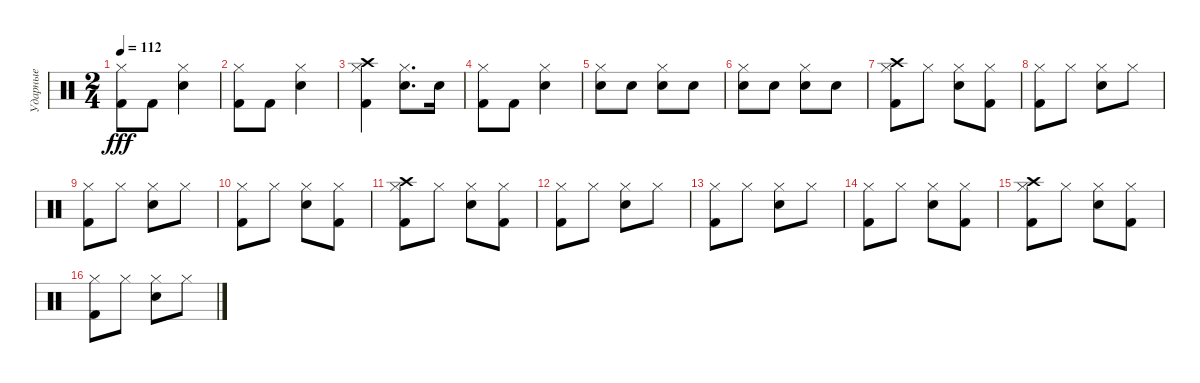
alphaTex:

\track ("Ударные" "Ударные") {instrument percussion}
\staff {score}
\articulation defaults
\ts (2 4)
\tempo 112
\clef neutral
\ks c
("Hi-Hat (closed)" "Kick (hit) 2").8{dy fff} "Kick (hit) 2".8 ("Electric Snare (hit)" "Hi-Hat (closed)").4 |
("Kick (hit) 2" "Hi-Hat (closed)").8 "Kick (hit) 2".8 ("Electric Snare (hit)" "Hi-Hat (closed)").4 |
("Kick (hit) 2" "Hi-Hat (closed)" "Crash high (hit)").4 ("Electric Snare (hit)" "Hi-Hat (closed)").8{d} "Electric Snare (hit)".16 |
("Hi-Hat (closed)" "Kick (hit) 2").8 "Kick (hit) 2".8 ("Hi-Hat (closed)" "Electric Snare (hit)").4 |
("Hi-Hat (closed)" "Electric Snare (hit)").8 "Electric Snare (hit)".8 ("Hi-Hat (closed)" "Electric Snare (hit)").8 "Electric Snare (hit)".8 |
("Electric Snare (hit)" "Hi-Hat (closed)").8 "Electric Snare (hit)".8 ("Electric Snare (hit)" "Hi-Hat (closed)").8 "Electric Snare (hit)".8 |
("Kick (hit) 2" "Crash high (hit)" "Hi-Hat (closed)").8 "Hi-Hat (closed)".8 ("Electric Snare (hit)" "Hi-Hat (closed)").8 ("Hi-Hat (closed)" "Kick (hit) 2").8 |
("Kick (hit) 2" "Hi-Hat (closed)").8 "Hi-Hat (closed)".8 ("Electric Snare (hit)" "Hi-Hat (closed)").8 "Hi-Hat (closed)".8 |
("Kick (hit) 2" "Hi-Hat (closed)").8 "Hi-Hat (closed)".8 ("Electric Snare (hit)" "Hi-Hat (closed)").8 "Hi-Hat (closed)".8 |
("Kick (hit) 2" "Hi-Hat (closed)").8 "Hi-Hat (closed)".8 ("Electric Snare (hit)" "Hi-Hat (closed)").8 ("Kick (hit) 2" "Hi-Hat (closed)").8 |
("Kick (hit) 2" "Hi-Hat (closed)" "Crash high (hit)").8 "Hi-Hat (closed)".8 ("Electric Snare (hit)" "Hi-Hat (closed)").8 ("Hi-Hat (closed)" "Kick (hit) 2").8 |
("Kick (hit) 2" "Hi-Hat (closed)").8 "Hi-Hat (closed)".8 ("Electric Snare (hit)" "Hi-Hat (closed)").8 "Hi-Hat (closed)".8 |
("Kick (hit) 2" "Hi-Hat (closed)").8 "Hi-Hat (closed)".8 ("Electric Snare (hit)" "Hi-Hat (closed)").8 "Hi-Hat (closed)".8 |
("Kick (hit) 2" "Hi-Hat (closed)").8 "Hi-Hat (closed)".8 ("Electric Snare (hit)" "Hi-Hat (closed)").8 ("Kick (hit) 2" "Hi-Hat (closed)").8 |
("Kick (hit) 2" "Crash high (hit)" "Hi-Hat (closed)").8 "Hi-Hat (closed)".8 ("Electric Snare (hit)" "Hi-Hat (closed)").8 ("Kick (hit) 2" "Hi-Hat (closed)").8 |
("Kick (hit) 2" "Hi-Hat (closed)").8 "Hi-Hat (closed)".8 ("Electric Snare (hit)" "Hi-Hat (closed)").8 "Hi-Hat (closed)".8
